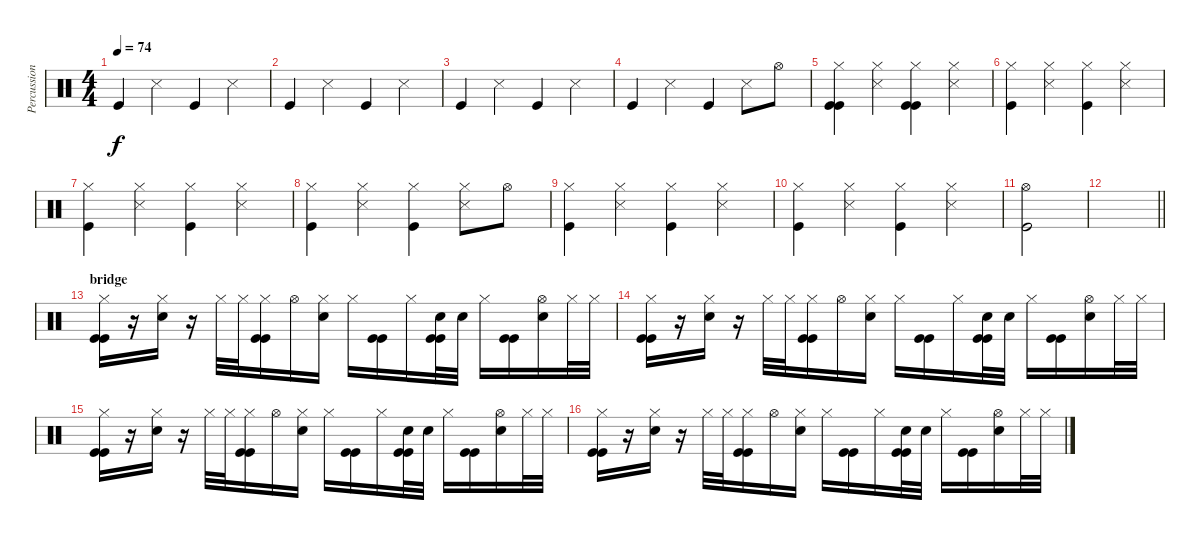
\track ("Percussion" "Percussion") {instrument percussion}
\staff {score}
\articulation defaults
\ts (4 4)
\tempo 74
\clef neutral
\ks c "Kick (hit)".4{dy f} "Snare (side stick) 3".4 "Kick (hit)".4 "Snare (side stick) 3".4
|
"Kick (hit)".4 "Snare (side stick) 3".4 "Kick (hit)".4 "Snare (side stick) 3".4 |
"Kick (hit)".4 "Snare (side stick) 3".4 "Kick (hit)".4 "Snare (side stick) 3".4 |
"Kick (hit)".4 "Snare (side stick) 3".4 "Kick (hit)".4 "Snare (side stick) 3".8 "Hi-Hat (open)".8 |
("Hi-Hat (closed)" "Kick (hit)" "Kick (hit)").4 ("Hi-Hat (closed)" "Snare (side stick) 3").4 ("Hi-Hat (closed)" "Kick (hit)" "Kick (hit)").4 ("Hi-Hat (closed)" "Snare (side stick) 3").4 |
("Hi-Hat (closed)" "Kick (hit)").4 ("Hi-Hat (closed)" "Snare (side stick) 3").4 ("Hi-Hat (closed)" "Kick (hit)").4 ("Hi-Hat (closed)" "Snare (side stick) 3").4 |
("Hi-Hat (closed)" "Kick (hit)").4 ("Hi-Hat (closed)" "Snare (side stick) 3").4 ("Hi-Hat (closed)" "Kick (hit)").4 ("Hi-Hat (closed)" "Snare (side stick) 3").4 |
("Hi-Hat (closed)" "Kick (hit)").4 ("Hi-Hat (closed)" "Snare (side stick) 3").4 ("Hi-Hat (closed)" "Kick (hit)").4 ("Hi-Hat (closed)" "Snare (side stick) 3").8 "Hi-Hat (open)".8 |
("Hi-Hat (closed)" "Kick (hit)").4 ("Hi-Hat (closed)" "Snare (side stick) 3").4 ("Hi-Hat (closed)" "Kick (hit)").4 ("Hi-Hat (closed)" "Snare (side stick) 3").4 |
("Hi-Hat (closed)" "Kick (hit)").4 ("Hi-Hat (closed)" "Snare (side stick) 3").4 ("Hi-Hat (closed)" "Kick (hit)").4 ("Hi-Hat (closed)" "Snare (side stick) 3").4 |
("Hi-Hat (open)" "Kick (hit)").2 |
\barLineRight lightlight
|
\section ("" "bridge")
("Hi-Hat (closed)" "Kick (hit)" "Kick (hit)").16 r.16 ("Hi-Hat (closed)" "Snare (hit) 2").16 r.16 "Hi-Hat (closed)".32 "Hi-Hat (closed)".32 ("Hi-Hat (closed)" "Kick (hit)" "Kick (hit)").16 "Hi-Hat (open)".16 ("Hi-Hat (closed)" "Snare (hit) 2").16 "Hi-Hat (closed)".16 ("Kick (hit)" "Kick (hit)").16 "Hi-Hat (closed)".16 ("Snare (hit) 2" "Kick (hit)" "Kick (hit)").32 "Snare (hit) 2".32 "Hi-Hat (closed)".16 ("Kick (hit)" "Kick (hit)").16 ("Hi-Hat (open)" "Snare (hit) 2").16 "Hi-Hat (closed)".32 "Hi-Hat (closed)".32 |
("Hi-Hat (closed)" "Kick (hit)" "Kick (hit)").16 r.16 ("Hi-Hat (closed)" "Snare (hit) 2").16 r.16 "Hi-Hat (closed)".32 "Hi-Hat (closed)".32 ("Hi-Hat (closed)" "Kick (hit)" "Kick (hit)").16 "Hi-Hat (open)".16 ("Hi-Hat (closed)" "Snare (hit) 2").16 "Hi-Hat (closed)".16 ("Kick (hit)" "Kick (hit)").16 "Hi-Hat (closed)".16 ("Snare (hit) 2" "Kick (hit)" "Kick (hit)").32 "Snare (hit) 2".32 "Hi-Hat (closed)".16 ("Kick (hit)" "Kick (hit)").16 ("Hi-Hat (open)" "Snare (hit) 2").16 "Hi-Hat (closed)".32 "Hi-Hat (closed)".32 |
("Hi-Hat (closed)" "Kick (hit)" "Kick (hit)").16 r.16 ("Hi-Hat (closed)" "Snare (hit) 2").16 r.16 "Hi-Hat (closed)".32 "Hi-Hat (closed)".32 ("Hi-Hat (closed)" "Kick (hit)" "Kick (hit)").16 "Hi-Hat (open)".16 ("Hi-Hat (closed)" "Snare (hit) 2").16 "Hi-Hat (closed)".16 ("Kick (hit)" "Kick (hit)").16 "Hi-Hat (closed)".16 ("Snare (hit) 2" "Kick (hit)" "Kick (hit)").32 "Snare (hit) 2".32 "Hi-Hat (closed)".16 ("Kick (hit)" "Kick (hit)").16 ("Hi-Hat (open)" "Snare (hit) 2").16 "Hi-Hat (closed)".32 "Hi-Hat (closed)".32 |
("Hi-Hat (closed)" "Kick (hit)" "Kick (hit)").16 r.16 ("Hi-Hat (closed)" "Snare (hit) 2").16 r.16 "Hi-Hat (closed)".32 "Hi-Hat (closed)".32 ("Hi-Hat (closed)" "Kick (hit)" "Kick (hit)").16 "Hi-Hat (open)".16 ("Hi-Hat (closed)" "Snare (hit) 2").16 "Hi-Hat (closed)".16 ("Kick (hit)" "Kick (hit)").16 "Hi-Hat (closed)".16 ("Snare (hit) 2" "Kick (hit)" "Kick (hit)").32 "Snare (hit) 2".32 "Hi-Hat (closed)".16 ("Kick (hit)" "Kick (hit)").16 ("Hi-Hat (open)" "Snare (hit) 2").16 "Hi-Hat (closed)".32 "Hi-Hat (closed)".32
